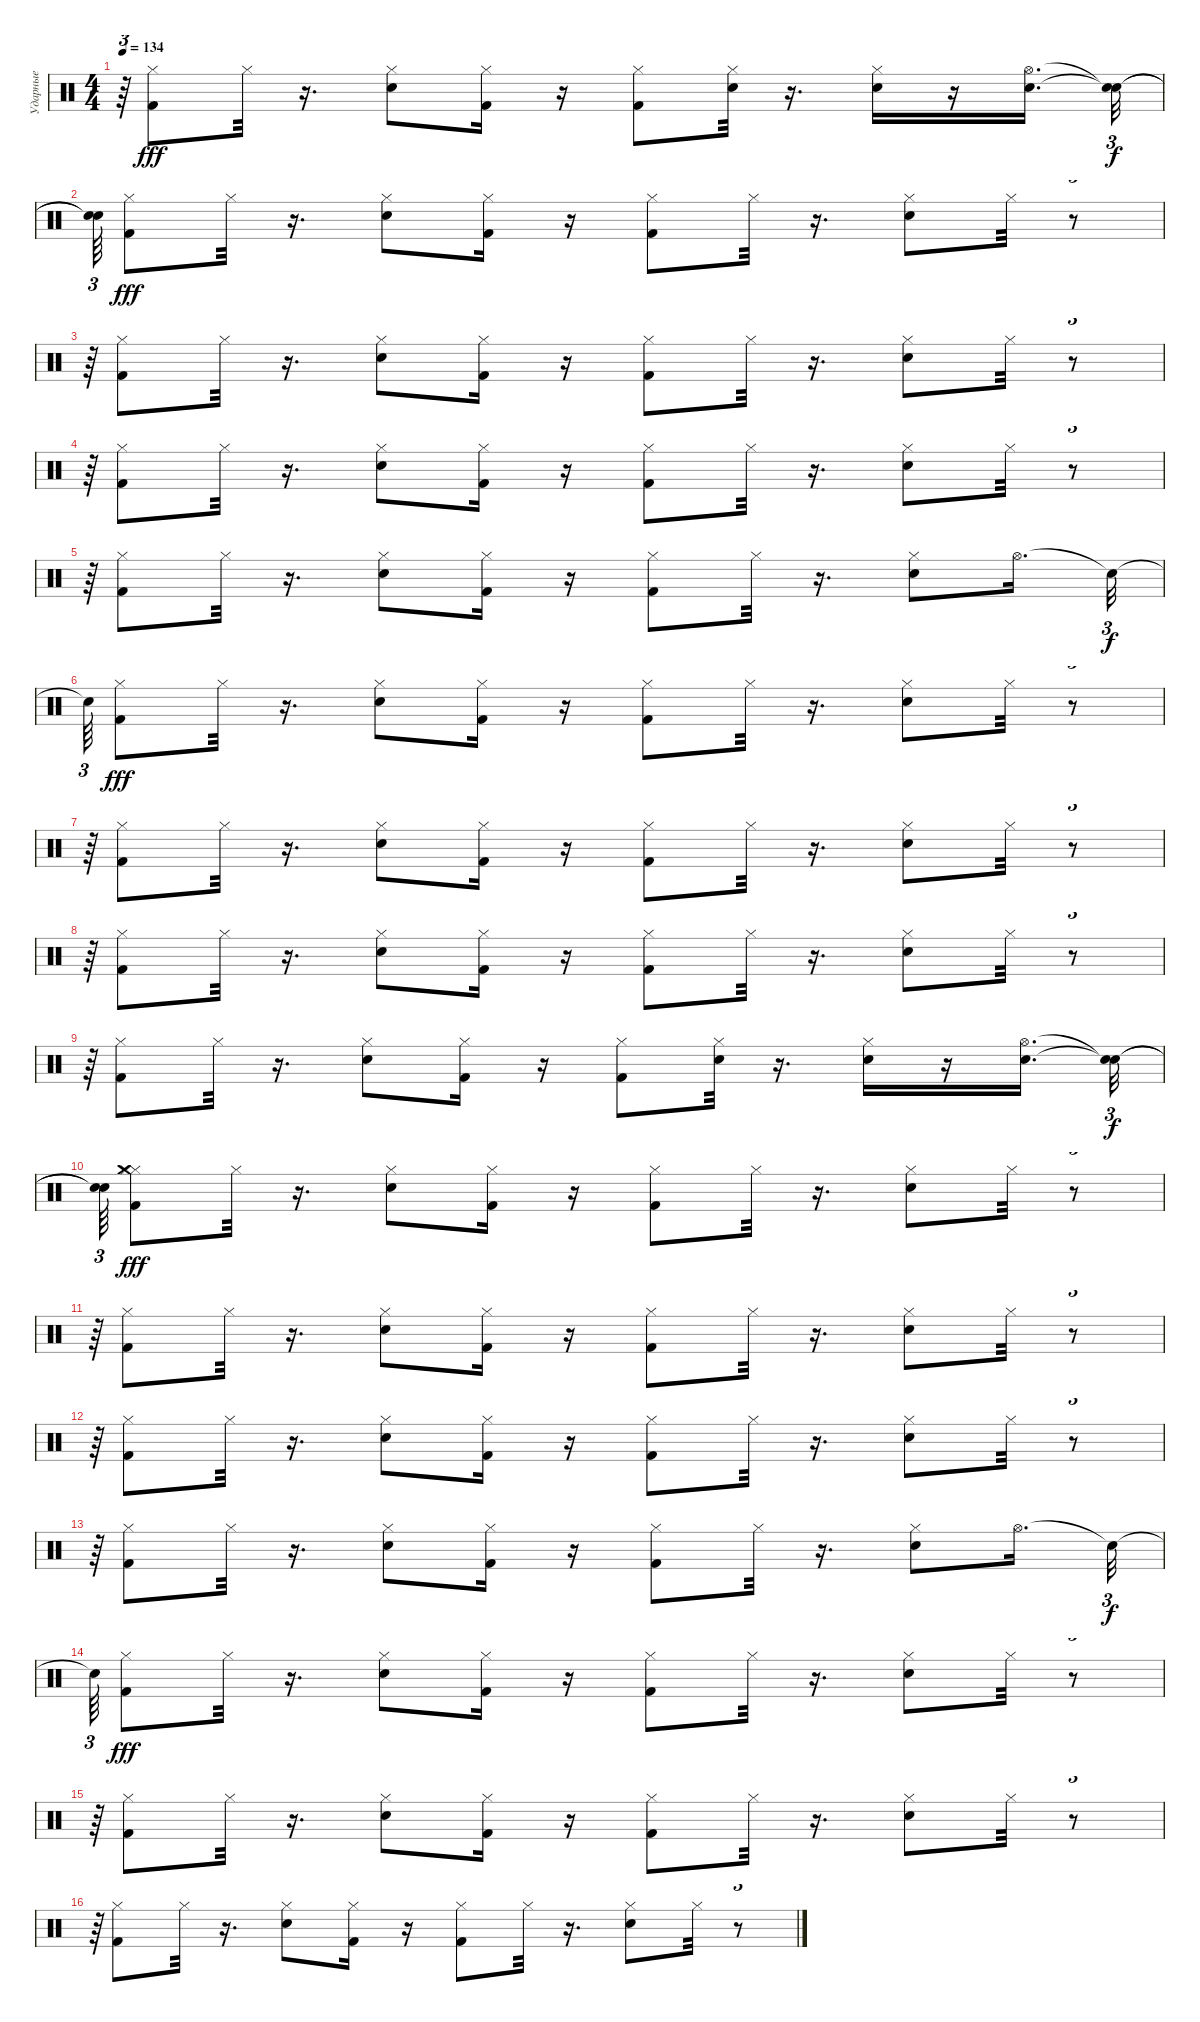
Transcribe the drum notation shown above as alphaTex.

\track ("Ударные" "Ударные") {instrument percussion}
\staff {score}
\articulation defaults
\ts (4 4)
\tempo 134
\clef neutral
\ks c
r.64{tu (3 2) dy fff} ("Kick (hit) 2" "Hi-Hat (closed)").8 "Hi-Hat (closed)".32 r.16{d} ("Electric Snare (hit)" "Hi-Hat (closed)").8 ("Kick (hit) 2" "Hi-Hat (closed)").16 r.16 ("Kick (hit) 2" "Hi-Hat (closed)").8 ("Electric Snare (hit)" "Hi-Hat (closed)").32 r.16{d} ("Electric Snare (hit)" "Hi-Hat (closed)").16 r.16 ("Electric Snare (hit)" "Hi-Hat (open)").16{d} ("Snare (hit)"{t} "Snare (hit)"{t}).32{tu (3 2) dy f} |
("Snare (hit)"{t} "Snare (hit)"{t}).64{tu (3 2)} ("Kick (hit) 2" "Hi-Hat (closed)").8{dy fff} "Hi-Hat (closed)".32 r.16{d} ("Electric Snare (hit)" "Hi-Hat (closed)").8 ("Kick (hit) 2" "Hi-Hat (closed)").16 r.16 ("Kick (hit) 2" "Hi-Hat (closed)").8 "Hi-Hat (closed)".32 r.16{d} ("Electric Snare (hit)" "Hi-Hat (closed)").8 "Hi-Hat (closed)".32 r.8{tu (3 2)} |
r.64{tu (3 2)} ("Kick (hit) 2" "Hi-Hat (closed)").8 "Hi-Hat (closed)".32 r.16{d} ("Electric Snare (hit)" "Hi-Hat (closed)").8 ("Kick (hit) 2" "Hi-Hat (closed)").16 r.16 ("Kick (hit) 2" "Hi-Hat (closed)").8 "Hi-Hat (closed)".32 r.16{d} ("Electric Snare (hit)" "Hi-Hat (closed)").8 "Hi-Hat (closed)".32 r.8{tu (3 2)} |
r.64{tu (3 2)} ("Kick (hit) 2" "Hi-Hat (closed)").8 "Hi-Hat (closed)".32 r.16{d} ("Electric Snare (hit)" "Hi-Hat (closed)").8 ("Kick (hit) 2" "Hi-Hat (closed)").16 r.16 ("Kick (hit) 2" "Hi-Hat (closed)").8 "Hi-Hat (closed)".32 r.16{d} ("Electric Snare (hit)" "Hi-Hat (closed)").8 "Hi-Hat (closed)".32 r.8{tu (3 2)} |
r.64{tu (3 2)} ("Kick (hit) 2" "Hi-Hat (closed)").8 "Hi-Hat (closed)".32 r.16{d} ("Electric Snare (hit)" "Hi-Hat (closed)").8 ("Kick (hit) 2" "Hi-Hat (closed)").16 r.16 ("Kick (hit) 2" "Hi-Hat (closed)").8 "Hi-Hat (closed)".32 r.16{d} ("Electric Snare (hit)" "Hi-Hat (closed)").8 "Hi-Hat (open)".16{d} "Snare (hit)"{t}.32{tu (3 2) dy f} |
"Snare (hit)"{t}.64{tu (3 2)} ("Kick (hit) 2" "Hi-Hat (closed)").8{dy fff} "Hi-Hat (closed)".32 r.16{d} ("Electric Snare (hit)" "Hi-Hat (closed)").8 ("Kick (hit) 2" "Hi-Hat (closed)").16 r.16 ("Kick (hit) 2" "Hi-Hat (closed)").8 "Hi-Hat (closed)".32 r.16{d} ("Electric Snare (hit)" "Hi-Hat (closed)").8 "Hi-Hat (closed)".32 r.8{tu (3 2)} |
r.64{tu (3 2)} ("Kick (hit) 2" "Hi-Hat (closed)").8 "Hi-Hat (closed)".32 r.16{d} ("Electric Snare (hit)" "Hi-Hat (closed)").8 ("Kick (hit) 2" "Hi-Hat (closed)").16 r.16 ("Kick (hit) 2" "Hi-Hat (closed)").8 "Hi-Hat (closed)".32 r.16{d} ("Electric Snare (hit)" "Hi-Hat (closed)").8 "Hi-Hat (closed)".32 r.8{tu (3 2)} |
r.64{tu (3 2)} ("Kick (hit) 2" "Hi-Hat (closed)").8 "Hi-Hat (closed)".32 r.16{d} ("Electric Snare (hit)" "Hi-Hat (closed)").8 ("Kick (hit) 2" "Hi-Hat (closed)").16 r.16 ("Kick (hit) 2" "Hi-Hat (closed)").8 "Hi-Hat (closed)".32 r.16{d} ("Electric Snare (hit)" "Hi-Hat (closed)").8 "Hi-Hat (closed)".32 r.8{tu (3 2)} |
r.64{tu (3 2)} ("Kick (hit) 2" "Hi-Hat (closed)").8 "Hi-Hat (closed)".32 r.16{d} ("Electric Snare (hit)" "Hi-Hat (closed)").8 ("Kick (hit) 2" "Hi-Hat (closed)").16 r.16 ("Kick (hit) 2" "Hi-Hat (closed)").8 ("Electric Snare (hit)" "Hi-Hat (closed)").32 r.16{d} ("Electric Snare (hit)" "Hi-Hat (closed)").16 r.16 ("Electric Snare (hit)" "Hi-Hat (open)").16{d} ("Snare (hit)"{t} "Snare (hit)"{t}).32{tu (3 2) dy f} |
("Snare (hit)"{t} "Snare (hit)"{t}).64{tu (3 2)} ("Kick (hit) 2" "Hi-Hat (closed)" "Hi-Hat (closed)" "Crash medium (hit)").8{dy fff} "Hi-Hat (closed)".32 r.16{d} ("Electric Snare (hit)" "Hi-Hat (closed)").8 ("Kick (hit) 2" "Hi-Hat (closed)").16 r.16 ("Kick (hit) 2" "Hi-Hat (closed)").8 "Hi-Hat (closed)".32 r.16{d} ("Electric Snare (hit)" "Hi-Hat (closed)").8 "Hi-Hat (closed)".32 r.8{tu (3 2)} |
r.64{tu (3 2)} ("Kick (hit) 2" "Hi-Hat (closed)").8 "Hi-Hat (closed)".32 r.16{d} ("Electric Snare (hit)" "Hi-Hat (closed)").8 ("Kick (hit) 2" "Hi-Hat (closed)").16 r.16 ("Kick (hit) 2" "Hi-Hat (closed)").8 "Hi-Hat (closed)".32 r.16{d} ("Electric Snare (hit)" "Hi-Hat (closed)").8 "Hi-Hat (closed)".32 r.8{tu (3 2)} |
r.64{tu (3 2)} ("Kick (hit) 2" "Hi-Hat (closed)").8 "Hi-Hat (closed)".32 r.16{d} ("Electric Snare (hit)" "Hi-Hat (closed)").8 ("Kick (hit) 2" "Hi-Hat (closed)").16 r.16 ("Kick (hit) 2" "Hi-Hat (closed)").8 "Hi-Hat (closed)".32 r.16{d} ("Electric Snare (hit)" "Hi-Hat (closed)").8 "Hi-Hat (closed)".32 r.8{tu (3 2)} |
r.64{tu (3 2)} ("Kick (hit) 2" "Hi-Hat (closed)").8 "Hi-Hat (closed)".32 r.16{d} ("Electric Snare (hit)" "Hi-Hat (closed)").8 ("Kick (hit) 2" "Hi-Hat (closed)").16 r.16 ("Kick (hit) 2" "Hi-Hat (closed)").8 "Hi-Hat (closed)".32 r.16{d} ("Electric Snare (hit)" "Hi-Hat (closed)").8 "Hi-Hat (open)".16{d} "Snare (hit)"{t}.32{tu (3 2) dy f} |
"Snare (hit)"{t}.64{tu (3 2)} ("Kick (hit) 2" "Hi-Hat (closed)").8{dy fff} "Hi-Hat (closed)".32 r.16{d} ("Electric Snare (hit)" "Hi-Hat (closed)").8 ("Kick (hit) 2" "Hi-Hat (closed)").16 r.16 ("Kick (hit) 2" "Hi-Hat (closed)").8 "Hi-Hat (closed)".32 r.16{d} ("Electric Snare (hit)" "Hi-Hat (closed)").8 "Hi-Hat (closed)".32 r.8{tu (3 2)} |
r.64{tu (3 2)} ("Kick (hit) 2" "Hi-Hat (closed)").8 "Hi-Hat (closed)".32 r.16{d} ("Electric Snare (hit)" "Hi-Hat (closed)").8 ("Kick (hit) 2" "Hi-Hat (closed)").16 r.16 ("Kick (hit) 2" "Hi-Hat (closed)").8 "Hi-Hat (closed)".32 r.16{d} ("Electric Snare (hit)" "Hi-Hat (closed)").8 "Hi-Hat (closed)".32 r.8{tu (3 2)} |
r.64{tu (3 2)} ("Kick (hit) 2" "Hi-Hat (closed)").8 "Hi-Hat (closed)".32 r.16{d} ("Electric Snare (hit)" "Hi-Hat (closed)").8 ("Kick (hit) 2" "Hi-Hat (closed)").16 r.16 ("Kick (hit) 2" "Hi-Hat (closed)").8 "Hi-Hat (closed)".32 r.16{d} ("Electric Snare (hit)" "Hi-Hat (closed)").8 "Hi-Hat (closed)".32 r.8{tu (3 2)}
